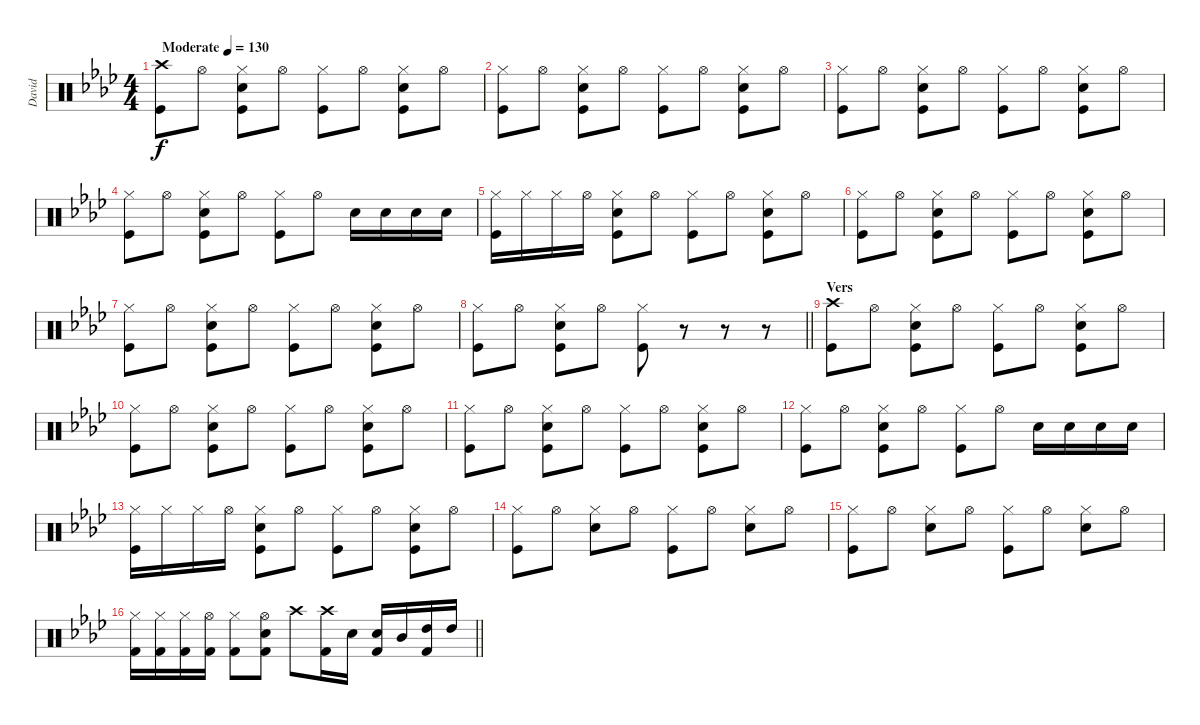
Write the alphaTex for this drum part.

\track ("David" "David") {instrument percussion}
\staff {score}
\articulation defaults
\ts (4 4)
\tempo (130 "Moderate")
\clef neutral
\ks ab
("Crash high (hit)" "Kick (hit)").8{dy f} "Hi-Hat (open)".8 ("Hi-Hat (closed)" "Electric Snare (hit)" "Kick (hit)").8 "Hi-Hat (open)".8 ("Hi-Hat (closed)" "Kick (hit)").8 "Hi-Hat (open)".8 ("Hi-Hat (closed)" "Electric Snare (hit)" "Kick (hit)").8 "Hi-Hat (open)".8 |
("Hi-Hat (closed)" "Kick (hit)").8 "Hi-Hat (open)".8 ("Hi-Hat (closed)" "Electric Snare (hit)" "Kick (hit)").8 "Hi-Hat (open)".8 ("Hi-Hat (closed)" "Kick (hit)").8 "Hi-Hat (open)".8 ("Hi-Hat (closed)" "Electric Snare (hit)" "Kick (hit)").8 "Hi-Hat (open)".8 |
("Hi-Hat (closed)" "Kick (hit)").8 "Hi-Hat (open)".8 ("Hi-Hat (closed)" "Electric Snare (hit)" "Kick (hit)").8 "Hi-Hat (open)".8 ("Hi-Hat (closed)" "Kick (hit)").8 "Hi-Hat (open)".8 ("Hi-Hat (closed)" "Electric Snare (hit)" "Kick (hit)").8 "Hi-Hat (open)".8 |
("Hi-Hat (closed)" "Kick (hit)").8 "Hi-Hat (open)".8 ("Hi-Hat (closed)" "Electric Snare (hit)" "Kick (hit)").8 "Hi-Hat (open)".8 ("Hi-Hat (closed)" "Kick (hit)").8 "Hi-Hat (open)".8 "Electric Snare (hit)".16 "Electric Snare (hit)".16 "Electric Snare (hit)".16 "Electric Snare (hit)".16 |
("Hi-Hat (closed)" "Kick (hit)").16{volume 12} "Hi-Hat (closed)".16 "Hi-Hat (closed)".16 "Hi-Hat (open)".16 ("Hi-Hat (closed)" "Snare (hit) 2" "Kick (hit)").8 "Hi-Hat (open)".8 ("Hi-Hat (closed)" "Kick (hit)").8 "Hi-Hat (open)".8 ("Hi-Hat (closed)" "Snare (hit) 2" "Kick (hit)").8 "Hi-Hat (open)".8 |
("Hi-Hat (closed)" "Kick (hit)").8 "Hi-Hat (open)".8 ("Hi-Hat (closed)" "Electric Snare (hit)" "Kick (hit)").8 "Hi-Hat (open)".8 ("Hi-Hat (closed)" "Kick (hit)").8 "Hi-Hat (open)".8 ("Hi-Hat (closed)" "Electric Snare (hit)" "Kick (hit)").8 "Hi-Hat (open)".8 |
("Hi-Hat (closed)" "Kick (hit)").8 "Hi-Hat (open)".8 ("Hi-Hat (closed)" "Electric Snare (hit)" "Kick (hit)").8 "Hi-Hat (open)".8 ("Hi-Hat (closed)" "Kick (hit)").8 "Hi-Hat (open)".8 ("Hi-Hat (closed)" "Electric Snare (hit)" "Kick (hit)").8 "Hi-Hat (open)".8 |
\barLineRight lightlight
("Hi-Hat (closed)" "Kick (hit)").8 "Hi-Hat (open)".8 ("Hi-Hat (closed)" "Electric Snare (hit)" "Kick (hit)").8 "Hi-Hat (open)".8 ("Hi-Hat (closed)" "Kick (hit)").8 r.8 r.8 r.8 |
\section ("" "Vers")
("Crash high (hit)" "Kick (hit)").8 "Hi-Hat (open)".8 ("Hi-Hat (closed)" "Electric Snare (hit)" "Kick (hit)").8 "Hi-Hat (open)".8 ("Hi-Hat (closed)" "Kick (hit)").8 "Hi-Hat (open)".8 ("Hi-Hat (closed)" "Electric Snare (hit)" "Kick (hit)").8 "Hi-Hat (open)".8 |
("Hi-Hat (closed)" "Kick (hit)").8 "Hi-Hat (open)".8 ("Hi-Hat (closed)" "Electric Snare (hit)" "Kick (hit)").8 "Hi-Hat (open)".8 ("Hi-Hat (closed)" "Kick (hit)").8 "Hi-Hat (open)".8 ("Hi-Hat (closed)" "Electric Snare (hit)" "Kick (hit)").8 "Hi-Hat (open)".8 |
("Hi-Hat (closed)" "Kick (hit)").8 "Hi-Hat (open)".8 ("Hi-Hat (closed)" "Electric Snare (hit)" "Kick (hit)").8 "Hi-Hat (open)".8 ("Hi-Hat (closed)" "Kick (hit)").8 "Hi-Hat (open)".8 ("Hi-Hat (closed)" "Electric Snare (hit)" "Kick (hit)").8 "Hi-Hat (open)".8 |
("Hi-Hat (closed)" "Kick (hit)").8 "Hi-Hat (open)".8 ("Hi-Hat (closed)" "Electric Snare (hit)" "Kick (hit)").8 "Hi-Hat (open)".8 ("Hi-Hat (closed)" "Kick (hit)").8 "Hi-Hat (open)".8 "Electric Snare (hit)".16 "Electric Snare (hit)".16 "Electric Snare (hit)".16 "Electric Snare (hit)".16 |
("Hi-Hat (closed)" "Kick (hit)").16{volume 12} "Hi-Hat (closed)".16 "Hi-Hat (closed)".16 "Hi-Hat (open)".16 ("Hi-Hat (closed)" "Snare (hit) 2" "Kick (hit)").8 "Hi-Hat (open)".8 ("Hi-Hat (closed)" "Kick (hit)").8 "Hi-Hat (open)".8 ("Hi-Hat (closed)" "Snare (hit) 2" "Kick (hit)").8 "Hi-Hat (open)".8 |
("Hi-Hat (closed)" "Kick (hit)").8 "Hi-Hat (open)".8 ("Hi-Hat (closed)" "Electric Snare (hit)").8 "Hi-Hat (open)".8 ("Hi-Hat (closed)" "Kick (hit)").8 "Hi-Hat (open)".8 ("Hi-Hat (closed)" "Electric Snare (hit)").8 "Hi-Hat (open)".8 |
("Hi-Hat (closed)" "Kick (hit)").8 "Hi-Hat (open)".8 ("Hi-Hat (closed)" "Electric Snare (hit)").8 "Hi-Hat (open)".8 ("Hi-Hat (closed)" "Kick (hit)").8 "Hi-Hat (open)".8 ("Hi-Hat (closed)" "Electric Snare (hit)").8 "Hi-Hat (open)".8 |
\barLineRight lightlight
("Hi-Hat (closed)" "Kick (hit) 2").16 ("Hi-Hat (closed)" "Kick (hit) 2").16 ("Hi-Hat (closed)" "Kick (hit) 2").16 ("Hi-Hat (open)" "Kick (hit) 2").16 ("Hi-Hat (closed)" "Kick (hit) 2").8 ("Hi-Hat (open)" "Electric Snare (hit)" "Kick (hit) 2").8 "Crash high (hit)".8 ("Crash high (hit)" "Kick (hit) 2").16 "Electric Snare (hit)".16 ("Electric Snare (hit)" "Kick (hit) 2").16 "Mid Tom (hit)".16 ("High Tom (hit)" "Kick (hit) 2").16 "High Tom (hit)".16
